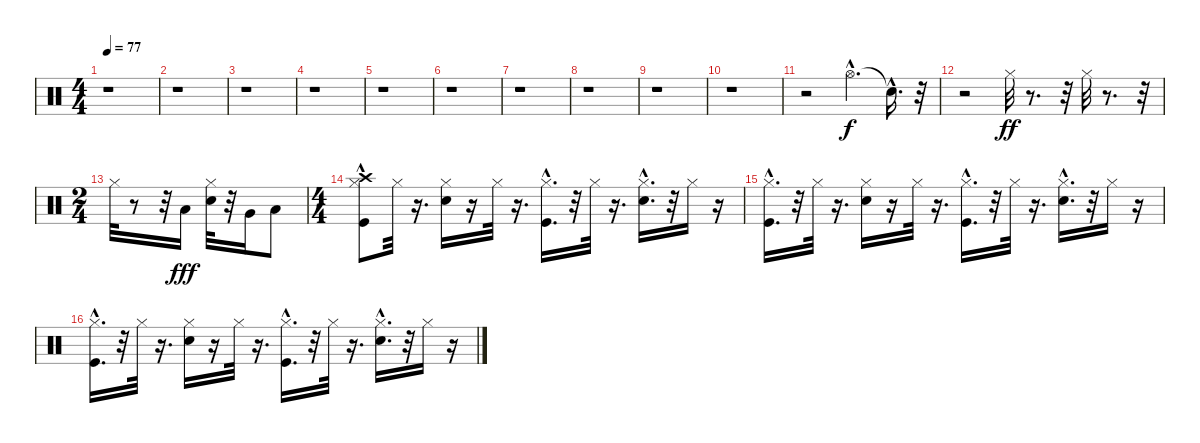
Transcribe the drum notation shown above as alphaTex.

\track "" {instrument percussion}
\staff {score}
\articulation defaults
\ts (4 4)
\tempo 77
\clef neutral
\ks c
r.1{dy f} |
r.1 |
r.1 |
r.1 |
r.1 |
r.1 |
r.1 |
r.1 |
r.1 |
r.1 |
r.2 "Hi-Hat (open)"{hac}.4{d} "Snare (hit)"{hac t}.16{d} r.32 |
r.2 "Hi-Hat (closed)".32{dy ff} r.8{d} r.32 "Hi-Hat (closed)".32 r.8{d} r.32 |
\ts (2 4)
"Hi-Hat (closed)".32 r.8 r.32 "Low Floor Tom (hit)".16{dy fff} ("Hi-Hat (closed)" "Electric Snare (hit)").32 r.32 "Very Low Tom (hit)".16 "Low Floor Tom (hit)".8 |
\ts (4 4)
("Crash high (hit)" "Kick (hit)"{hac} "Hi-Hat (closed)").8 "Hi-Hat (closed)".32 r.16{d} ("Snare (hit) 2" "Hi-Hat (closed)").16 r.16 "Hi-Hat (closed)".32 r.16{d} ("Kick (hit)"{hac} "Hi-Hat (closed)").16{d} r.32 "Hi-Hat (closed)".32 r.16{d} ("Snare (hit) 2"{hac} "Hi-Hat (closed)").16{d} r.32 "Hi-Hat (closed)".16 r.16 |
("Kick (hit)"{hac} "Hi-Hat (closed)").16{d} r.32 "Hi-Hat (closed)".32 r.16{d} ("Snare (hit) 2" "Hi-Hat (closed)").16 r.16 "Hi-Hat (closed)".32 r.16{d} ("Kick (hit)"{hac} "Hi-Hat (closed)").16{d} r.32 "Hi-Hat (closed)".32 r.16{d} ("Snare (hit) 2"{hac} "Hi-Hat (closed)").16{d} r.32 "Hi-Hat (closed)".16 r.16 |
("Kick (hit)"{hac} "Hi-Hat (closed)").16{d} r.32 "Hi-Hat (closed)".32 r.16{d} ("Snare (hit) 2" "Hi-Hat (closed)").16 r.16 "Hi-Hat (closed)".32 r.16{d} ("Kick (hit)"{hac} "Hi-Hat (closed)").16{d} r.32 "Hi-Hat (closed)".32 r.16{d} ("Snare (hit) 2"{hac} "Hi-Hat (closed)").16{d} r.32 "Hi-Hat (closed)".16 r.16
